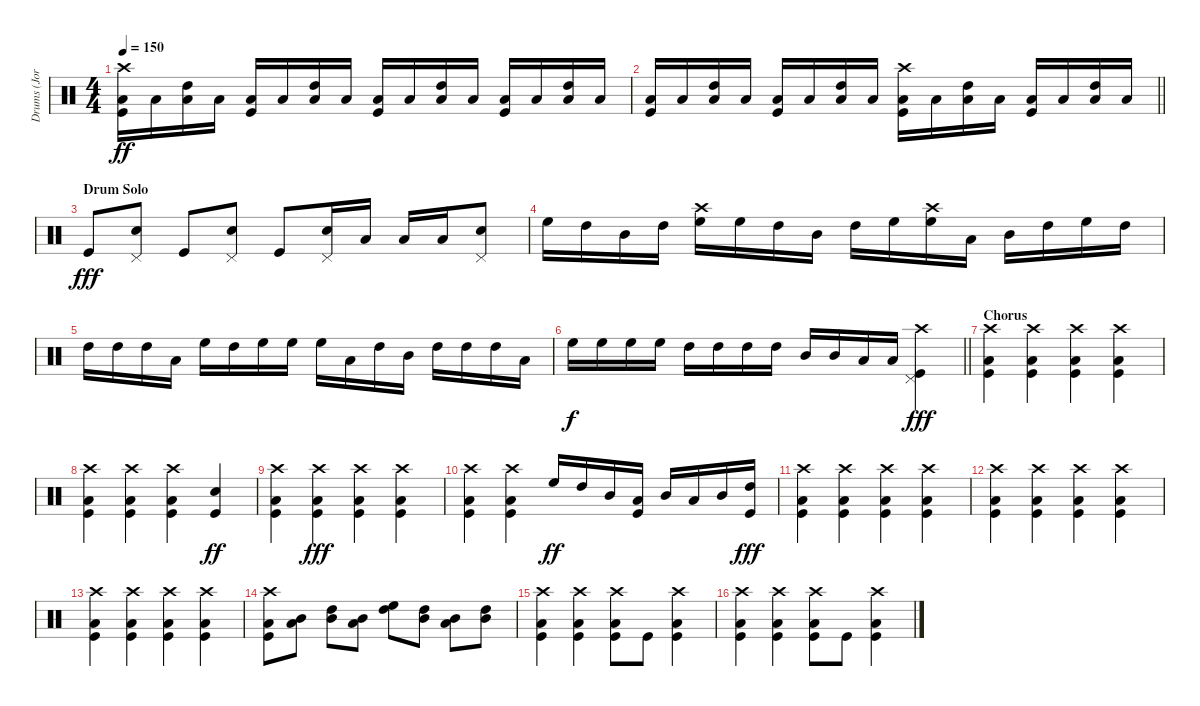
\track ("Drums (Jordan Hastings)" "Drums (Jor") {instrument percussion}
\staff {score}
\articulation defaults
\ts (4 4)
\tempo 150
\clef neutral
\ks c
("Crash high (hit)" "Kick (hit)" "Low Floor Tom (hit)").16{dy ff} "Low Floor Tom (hit)".16 ("High Tom (hit)" "Low Floor Tom (hit)").16 "Low Floor Tom (hit)".16 ("Kick (hit)" "Low Floor Tom (hit)").16 "Low Floor Tom (hit)".16 ("High Tom (hit)" "Low Floor Tom (hit)").16 "Low Floor Tom (hit)".16 ("Kick (hit)" "Low Floor Tom (hit)").16 "Low Floor Tom (hit)".16 ("High Tom (hit)" "Low Floor Tom (hit)").16 "Low Floor Tom (hit)".16 ("Kick (hit)" "Low Floor Tom (hit)").16 "Low Floor Tom (hit)".16 ("High Tom (hit)" "Low Floor Tom (hit)").16 "Low Floor Tom (hit)".16 |
\barLineRight lightlight
("Kick (hit)" "Low Floor Tom (hit)").16 "Low Floor Tom (hit)".16 ("High Tom (hit)" "Low Floor Tom (hit)").16 "Low Floor Tom (hit)".16 ("Kick (hit)" "Low Floor Tom (hit)").16 "Low Floor Tom (hit)".16 ("High Tom (hit)" "Low Floor Tom (hit)").16 "Low Floor Tom (hit)".16 ("Crash high (hit)" "Kick (hit)" "Low Floor Tom (hit)").16 "Low Floor Tom (hit)".16 ("High Tom (hit)" "Low Floor Tom (hit)").16 "Low Floor Tom (hit)".16 ("Kick (hit)" "Low Floor Tom (hit)").16 "Low Floor Tom (hit)".16 ("High Tom (hit)" "Low Floor Tom (hit)").16 "Low Floor Tom (hit)".16 |
\section ("" "Drum Solo")
"Kick (hit)".8{dy fff} ("Pedal Hi-Hat (hit)" "Electric Snare (hit)").8 "Kick (hit)".8 ("Pedal Hi-Hat (hit)" "Electric Snare (hit)").8 "Kick (hit)".8 ("Pedal Hi-Hat (hit)" "Electric Snare (hit)").16 "Low Tom (hit)".16 "Low Tom (hit)".16 "Low Tom (hit)".16 ("Pedal Hi-Hat (hit)" "Electric Snare (hit)").8 |
"High Floor Tom (hit)".16 "High Tom (hit)".16 "Mid Tom (hit)".16 "High Tom (hit)".16 ("Crash high (hit)" "High Floor Tom (hit)").16 "High Floor Tom (hit)".16 "High Tom (hit)".16 "Mid Tom (hit)".16 "High Tom (hit)".16 "High Floor Tom (hit)".16 ("Crash high (hit)" "High Floor Tom (hit)").16 "Low Tom (hit)".16 "Mid Tom (hit)".16 "High Tom (hit)".16 "High Floor Tom (hit)".16 "High Tom (hit)".16 |
"High Tom (hit)".16 "High Tom (hit)".16 "High Tom (hit)".16 "Low Tom (hit)".16 "High Floor Tom (hit)".16 "High Tom (hit)".16 "High Floor Tom (hit)".16 "High Floor Tom (hit)".16 "High Floor Tom (hit)".16 "Low Tom (hit)".16 "High Tom (hit)".16 "Mid Tom (hit)".16 "High Tom (hit)".16 "High Tom (hit)".16 "High Tom (hit)".16 "Low Tom (hit)".16 |
\barLineRight lightlight "High Floor Tom (hit)".16{dy f} "High Floor Tom (hit)".16 "High Floor Tom (hit)".16 "High Floor Tom (hit)".16 "High Tom (hit)".16 "High Tom (hit)".16 "High Tom (hit)".16 "High Tom (hit)".16 "Mid Tom (hit)".16 "Mid Tom (hit)".16 "Low Tom (hit)".16 "Low Tom (hit)".16
("Crash high (hit)" "Pedal Hi-Hat (hit)" "Kick (hit)").4{dy fff} |
\section ("" "Chorus")
("Crash high (hit)" "Low Floor Tom (hit)" "Kick (hit)").4 ("Crash high (hit)" "Low Floor Tom (hit)" "Kick (hit)").4 ("Crash high (hit)" "Low Floor Tom (hit)" "Kick (hit)").4 ("Crash high (hit)" "Low Floor Tom (hit)" "Kick (hit)").4 |
("Crash high (hit)" "Low Floor Tom (hit)" "Kick (hit)").4 ("Crash high (hit)" "Low Floor Tom (hit)" "Kick (hit)").4 ("Crash high (hit)" "Low Floor Tom (hit)" "Kick (hit)").4 ("Snare (hit) 2" "Kick (hit)").4{dy ff} |
("Crash high (hit)" "Low Floor Tom (hit)" "Kick (hit)").4 ("Crash high (hit)" "Low Floor Tom (hit)" "Kick (hit)").4{dy fff} ("Crash high (hit)" "Low Floor Tom (hit)" "Kick (hit)").4 ("Crash high (hit)" "Low Floor Tom (hit)" "Kick (hit)").4 |
("Crash high (hit)" "Low Floor Tom (hit)" "Kick (hit)").4 ("Crash high (hit)" "Low Floor Tom (hit)" "Kick (hit)").4 "High Floor Tom (hit)".16{dy ff} "High Tom (hit)".16 "Mid Tom (hit)".16 ("Low Tom (hit)" "Kick (hit)").16 "Mid Tom (hit)".16 "Low Floor Tom (hit)".16 "Mid Tom (hit)".16 ("High Tom (hit)" "Kick (hit)").16{dy fff} |
("Crash high (hit)" "Low Floor Tom (hit)" "Kick (hit)").4 ("Crash high (hit)" "Low Floor Tom (hit)" "Kick (hit)").4 ("Crash high (hit)" "Low Floor Tom (hit)" "Kick (hit)").4 ("Crash high (hit)" "Low Floor Tom (hit)" "Kick (hit)").4 |
("Crash high (hit)" "Low Floor Tom (hit)" "Kick (hit)").4 ("Crash high (hit)" "Low Floor Tom (hit)" "Kick (hit)").4 ("Crash high (hit)" "Low Floor Tom (hit)" "Kick (hit)").4 ("Crash high (hit)" "Low Floor Tom (hit)" "Kick (hit)").4 |
("Crash high (hit)" "Low Floor Tom (hit)" "Kick (hit)").4 ("Crash high (hit)" "Low Floor Tom (hit)" "Kick (hit)").4 ("Crash high (hit)" "Low Floor Tom (hit)" "Kick (hit)").4 ("Crash high (hit)" "Low Floor Tom (hit)" "Kick (hit)").4 |
("Crash high (hit)" "Low Floor Tom (hit)" "Kick (hit)").8 ("Mid Tom (hit)" "Low Tom (hit)").8 ("Mid Tom (hit)" "High Tom (hit)").8 ("Low Tom (hit)" "Mid Tom (hit)").8 ("High Floor Tom (hit)" "High Tom (hit)").8 ("Mid Tom (hit)" "High Tom (hit)").8 ("Mid Tom (hit)" "Low Tom (hit)").8 ("Mid Tom (hit)" "High Tom (hit)").8 |
("Crash high (hit)" "Low Floor Tom (hit)" "Kick (hit)").4 ("Crash high (hit)" "Low Floor Tom (hit)" "Kick (hit)").4 ("Crash high (hit)" "Low Floor Tom (hit)" "Kick (hit)").8 "Kick (hit)".8 ("Crash high (hit)" "Low Floor Tom (hit)" "Kick (hit)").4 |
("Crash high (hit)" "Low Floor Tom (hit)" "Kick (hit)").4 ("Crash high (hit)" "Low Floor Tom (hit)" "Kick (hit)").4 ("Crash high (hit)" "Low Floor Tom (hit)" "Kick (hit)").8 "Kick (hit)".8 ("Crash high (hit)" "Low Floor Tom (hit)" "Kick (hit)").4
